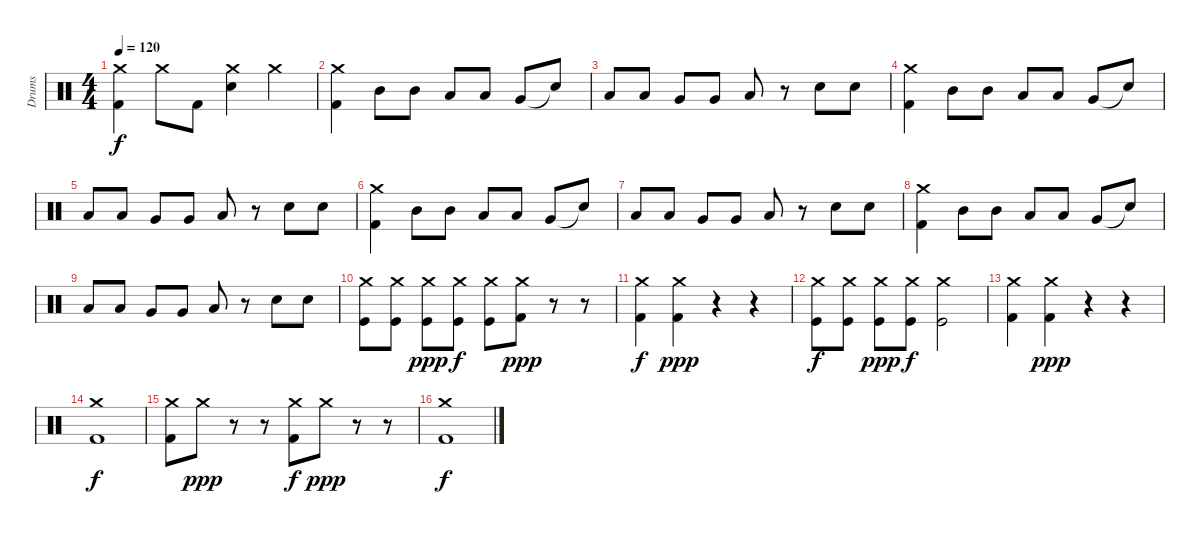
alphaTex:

\track ("Drums" "Drums") {instrument percussion}
\staff {score}
\articulation defaults
\ts (4 4)
\tempo 120
\clef neutral
\ks c
("Crash medium (hit)" "Kick (hit) 2").4{dy f} "Crash medium (hit)".8 "Kick (hit) 2".8 ("Crash medium (hit)" "Snare (hit) 2").4 "Crash medium (hit)".4 |
("Crash medium (hit)" "Kick (hit) 2").4 "Mid Tom (hit)".8 "Mid Tom (hit)".8 "Low Tom (hit)".8 "Low Tom (hit)".8 "Very Low Tom (hit)".8 "Snare (hit)"{t}.8 |
"Low Tom (hit)".8 "Low Tom (hit)".8 "Very Low Tom (hit)".8 "Very Low Tom (hit)".8 "Low Floor Tom (hit)".8 r.8 "Snare (hit) 2".8 "Snare (hit) 2".8 |
("Crash medium (hit)" "Kick (hit) 2").4 "Mid Tom (hit)".8 "Mid Tom (hit)".8 "Low Tom (hit)".8 "Low Tom (hit)".8 "Very Low Tom (hit)".8 "Snare (hit)"{t}.8 |
"Low Tom (hit)".8 "Low Tom (hit)".8 "Very Low Tom (hit)".8 "Very Low Tom (hit)".8 "Low Floor Tom (hit)".8 r.8 "Snare (hit) 2".8 "Snare (hit) 2".8 |
("Crash medium (hit)" "Kick (hit) 2").4 "Mid Tom (hit)".8 "Mid Tom (hit)".8 "Low Tom (hit)".8 "Low Tom (hit)".8 "Very Low Tom (hit)".8 "Snare (hit)"{t}.8 |
"Low Tom (hit)".8 "Low Tom (hit)".8 "Very Low Tom (hit)".8 "Very Low Tom (hit)".8 "Low Floor Tom (hit)".8 r.8 "Snare (hit) 2".8 "Snare (hit) 2".8 |
("Crash medium (hit)" "Kick (hit) 2").4 "Mid Tom (hit)".8 "Mid Tom (hit)".8 "Low Tom (hit)".8 "Low Tom (hit)".8 "Very Low Tom (hit)".8 "Snare (hit)"{t}.8 |
"Low Tom (hit)".8 "Low Tom (hit)".8 "Very Low Tom (hit)".8 "Very Low Tom (hit)".8 "Low Floor Tom (hit)".8 r.8 "Snare (hit) 2".8 "Snare (hit) 2".8 |
("Crash medium (hit)" "Kick (hit)").8 ("Crash medium (hit)" "Kick (hit)").8 ("Crash medium (hit)" "Kick (hit)").8{dy ppp} ("Crash medium (hit)" "Kick (hit)").8{dy f} ("Crash medium (hit)" "Kick (hit)").8 ("Crash medium (hit)" "Kick (hit) 2").8{dy ppp} r.8 r.8 |
("Crash medium (hit)" "Kick (hit) 2").4{dy f} ("Crash medium (hit)" "Kick (hit) 2").4{dy ppp} r.4 r.4 |
("Crash medium (hit)" "Kick (hit)").8{dy f} ("Crash medium (hit)" "Kick (hit)").8 ("Crash medium (hit)" "Kick (hit)").8{dy ppp} ("Crash medium (hit)" "Kick (hit)").8{dy f} ("Crash medium (hit)" "Kick (hit)").2 |
("Crash medium (hit)" "Kick (hit) 2").4 ("Crash medium (hit)" "Kick (hit) 2").4{dy ppp} r.4 r.4 |
("Crash medium (hit)" "Kick (hit) 2").1{dy f} |
("Crash medium (hit)" "Kick (hit) 2").8 "Crash medium (hit)".8{dy ppp} r.8 r.8 ("Crash medium (hit)" "Kick (hit) 2").8{dy f} "Crash medium (hit)".8{dy ppp} r.8 r.8 |
("Crash medium (hit)" "Kick (hit) 2").1{dy f}
